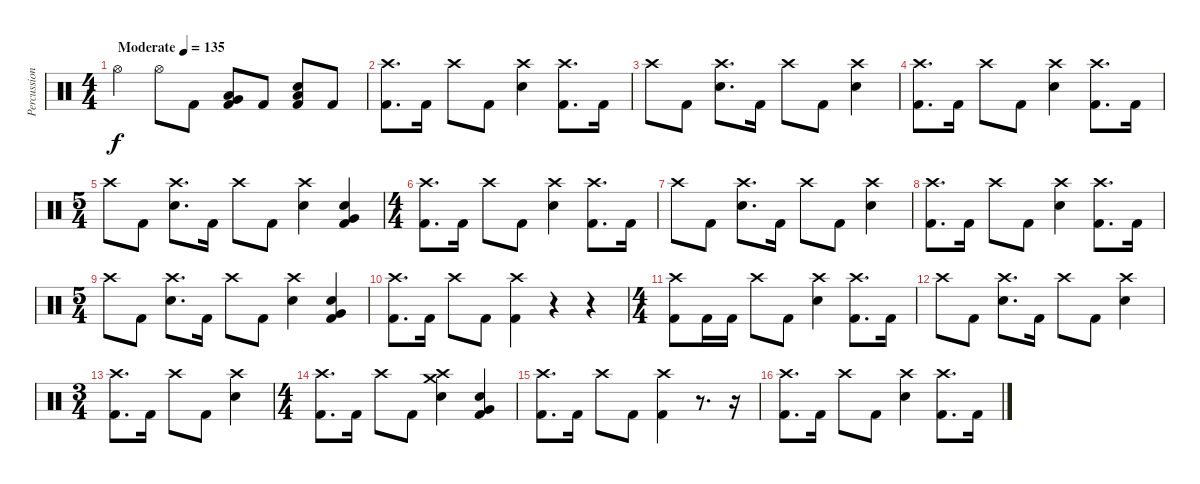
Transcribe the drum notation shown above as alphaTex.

\track ("Percussion" "Percussion") {instrument percussion}
\staff {score}
\articulation defaults
\ts (4 4)
\tempo (135 "Moderate")
\clef neutral
\ks c "Hi-Hat (open)".4{dy f} "Hi-Hat (open)".8 "Kick (hit) 2".8
("Low Tom (hit)" "Very Low Tom (hit)" "Kick (hit) 2").8 "Kick (hit) 2".8 ("Low Tom (hit)" "Electric Snare (hit)" "Kick (hit) 2").8 "Kick (hit) 2".8 |
("Crash high (hit)" "Kick (hit) 2").8{d} "Kick (hit) 2".16 "Crash high (hit)".8 "Kick (hit) 2".8 ("Crash high (hit)" "Electric Snare (hit)").4 ("Crash high (hit)" "Kick (hit) 2").8{d} "Kick (hit) 2".16 |
"Crash high (hit)".8 "Kick (hit) 2".8 ("Crash high (hit)" "Electric Snare (hit)").8{d} "Kick (hit) 2".16 "Crash high (hit)".8 "Kick (hit) 2".8 ("Crash high (hit)" "Electric Snare (hit)").4 |
("Crash high (hit)" "Kick (hit) 2").8{d} "Kick (hit) 2".16 "Crash high (hit)".8 "Kick (hit) 2".8 ("Crash high (hit)" "Electric Snare (hit)").4 ("Crash high (hit)" "Kick (hit) 2").8{d} "Kick (hit) 2".16 |
\ts (5 4)
"Crash high (hit)".8 "Kick (hit) 2".8 ("Crash high (hit)" "Electric Snare (hit)").8{d} "Kick (hit) 2".16 "Crash high (hit)".8 "Kick (hit) 2".8 ("Crash high (hit)" "Electric Snare (hit)").4 ("Very Low Tom (hit)" "Electric Snare (hit)" "Kick (hit) 2").4 |
\ts (4 4)
("Crash high (hit)" "Kick (hit) 2").8{d} "Kick (hit) 2".16 "Crash high (hit)".8 "Kick (hit) 2".8 ("Crash high (hit)" "Electric Snare (hit)").4 ("Crash high (hit)" "Kick (hit) 2").8{d} "Kick (hit) 2".16 |
"Crash high (hit)".8 "Kick (hit) 2".8 ("Crash high (hit)" "Electric Snare (hit)").8{d} "Kick (hit) 2".16 "Crash high (hit)".8 "Kick (hit) 2".8 ("Crash high (hit)" "Electric Snare (hit)").4 |
("Crash high (hit)" "Kick (hit) 2").8{d} "Kick (hit) 2".16 "Crash high (hit)".8 "Kick (hit) 2".8 ("Crash high (hit)" "Electric Snare (hit)").4 ("Crash high (hit)" "Kick (hit) 2").8{d} "Kick (hit) 2".16 |
\ts (5 4)
"Crash high (hit)".8 "Kick (hit) 2".8 ("Crash high (hit)" "Electric Snare (hit)").8{d} "Kick (hit) 2".16 "Crash high (hit)".8 "Kick (hit) 2".8 ("Crash high (hit)" "Electric Snare (hit)").4 ("Very Low Tom (hit)" "Electric Snare (hit)" "Kick (hit) 2").4 |
("Crash high (hit)" "Kick (hit) 2").8{d} "Kick (hit) 2".16 "Crash high (hit)".8 "Kick (hit) 2".8 ("Crash high (hit)" "Kick (hit) 2").4 r.4 r.4 |
\ts (4 4)
("Crash high (hit)" "Kick (hit) 2").8 "Kick (hit) 2".16 "Kick (hit) 2".16 "Crash high (hit)".8 "Kick (hit) 2".8 ("Crash high (hit)" "Electric Snare (hit)").4 ("Crash high (hit)" "Kick (hit) 2").8{d} "Kick (hit) 2".16 |
"Crash high (hit)".8 "Kick (hit) 2".8 ("Crash high (hit)" "Electric Snare (hit)").8{d} "Kick (hit) 2".16 "Crash high (hit)".8 "Kick (hit) 2".8 ("Crash high (hit)" "Electric Snare (hit)").4 |
\ts (3 4)
("Crash high (hit)" "Kick (hit) 2").8{d} "Kick (hit) 2".16 "Crash high (hit)".8 "Kick (hit) 2".8 ("Crash high (hit)" "Electric Snare (hit)").4 |
\ts (4 4)
("Crash high (hit)" "Kick (hit) 2").8{d} "Kick (hit) 2".16 "Crash high (hit)".8 "Kick (hit) 2".8 ("Crash high (hit)" "Crash medium (hit)" "Electric Snare (hit)").4 ("Very Low Tom (hit)" "Electric Snare (hit)" "Kick (hit) 2").4 |
("Crash high (hit)" "Kick (hit) 2").8{d} "Kick (hit) 2".16 "Crash high (hit)".8 "Kick (hit) 2".8 ("Crash high (hit)" "Kick (hit) 2").4 r.8{d} r.16 |
("Crash high (hit)" "Kick (hit) 2").8{d} "Kick (hit) 2".16 "Crash high (hit)".8 "Kick (hit) 2".8 ("Crash high (hit)" "Electric Snare (hit)").4 ("Crash high (hit)" "Kick (hit) 2").8{d} "Kick (hit) 2".16
